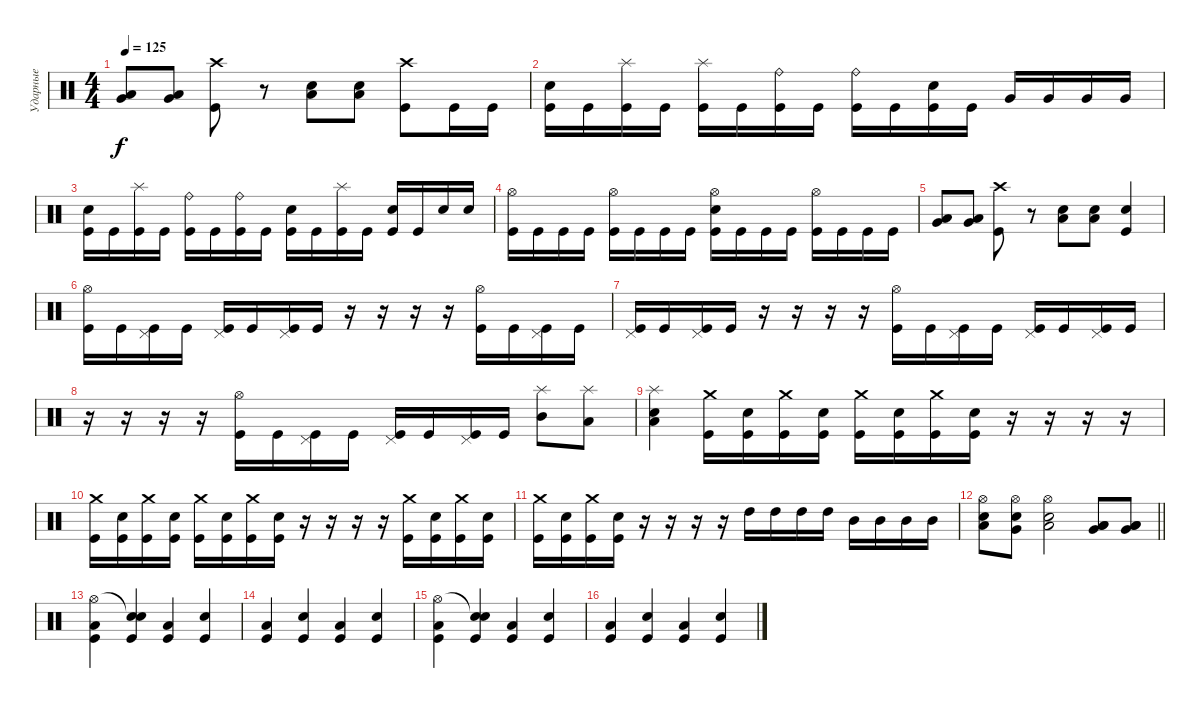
\track ("Ударные" "Ударные") {instrument percussion}
\staff {score}
\articulation defaults
\ts (4 4)
\tempo 125
\clef neutral
\ks c
("Low Tom (hit)" "Very Low Tom (hit)").8{dy f} ("Low Tom (hit)" "Very Low Tom (hit)").8 ("Crash high (hit)" "Kick (hit)").8 r.8 ("Electric Snare (hit)" "Low Floor Tom (hit)").8 ("Electric Snare (hit)" "Low Floor Tom (hit)").8 ("Crash high (hit)" "Kick (hit)").8 "Kick (hit)".16 "Kick (hit)".16 |
("Electric Snare (hit)" "Kick (hit)").16 "Kick (hit)".16 ("Splash (hit)" "Kick (hit)").16 "Kick (hit)".16 ("Splash (hit)" "Kick (hit)").16 "Kick (hit)".16 ("Ride (bell)" "Kick (hit)").16 "Kick (hit)".16 ("Ride (bell)" "Kick (hit)").16 "Kick (hit)".16 ("Electric Snare (hit)" "Kick (hit)").16 "Kick (hit)".16 "Very Low Tom (hit)".16 "Very Low Tom (hit)".16 "Very Low Tom (hit)".16 "Very Low Tom (hit)".16 |
("Electric Snare (hit)" "Kick (hit)").16 "Kick (hit)".16 ("Splash (hit)" "Kick (hit)").16 "Kick (hit)".16 ("Ride (bell)" "Kick (hit)").16 "Kick (hit)".16 ("Ride (bell)" "Kick (hit)").16 "Kick (hit)".16 ("Electric Snare (hit)" "Kick (hit)").16 "Kick (hit)".16 ("Splash (hit)" "Kick (hit)").16 "Kick (hit)".16 ("Electric Snare (hit)" "Kick (hit)").16 "Kick (hit)".16 "Electric Snare (hit)".16 "Electric Snare (hit)".16 |
("Hi-Hat (open)" "Kick (hit)").16 "Kick (hit)".16 "Kick (hit)".16 "Kick (hit)".16 ("Hi-Hat (open)" "Kick (hit)").16 "Kick (hit)".16 "Kick (hit)".16 "Kick (hit)".16 ("Hi-Hat (open)" "Electric Snare (hit)" "Kick (hit)").16 "Kick (hit)".16 "Kick (hit)".16 "Kick (hit)".16 ("Hi-Hat (open)" "Kick (hit)").16 "Kick (hit)".16 "Kick (hit)".16 "Kick (hit)".16 |
("Low Tom (hit)" "Very Low Tom (hit)").8 ("Low Tom (hit)" "Very Low Tom (hit)").8 ("Crash high (hit)" "Kick (hit)").8 r.8 ("Electric Snare (hit)" "Low Floor Tom (hit)").8 ("Electric Snare (hit)" "Low Floor Tom (hit)").8 ("Electric Snare (hit)" "Kick (hit)").4 |
("Kick (hit)" "Hi-Hat (open)").16 "Kick (hit)".16 ("Kick (hit)" "Pedal Hi-Hat (hit)").16 "Kick (hit)".16 ("Kick (hit)" "Pedal Hi-Hat (hit)").16 "Kick (hit)".16 ("Kick (hit)" "Pedal Hi-Hat (hit)").16 "Kick (hit)".16 r.16 r.16 r.16 r.16 ("Kick (hit)" "Hi-Hat (open)").16 "Kick (hit)".16 ("Kick (hit)" "Pedal Hi-Hat (hit)").16 "Kick (hit)".16 |
("Kick (hit)" "Pedal Hi-Hat (hit)").16 "Kick (hit)".16 ("Kick (hit)" "Pedal Hi-Hat (hit)").16 "Kick (hit)".16 r.16 r.16 r.16 r.16 ("Kick (hit)" "Hi-Hat (open)").16 "Kick (hit)".16 ("Kick (hit)" "Pedal Hi-Hat (hit)").16 "Kick (hit)".16 ("Kick (hit)" "Pedal Hi-Hat (hit)").16 "Kick (hit)".16 ("Kick (hit)" "Pedal Hi-Hat (hit)").16 "Kick (hit)".16 |
r.16 r.16 r.16 r.16 ("Kick (hit)" "Hi-Hat (open)").16 "Kick (hit)".16 ("Kick (hit)" "Pedal Hi-Hat (hit)").16 "Kick (hit)".16 ("Kick (hit)" "Pedal Hi-Hat (hit)").16 "Kick (hit)".16 ("Kick (hit)" "Pedal Hi-Hat (hit)").16 "Kick (hit)".16 ("Mid Tom (hit)" "Splash (hit)").8 ("Low Tom (hit)" "Splash (hit)").8 |
("Electric Snare (hit)" "Low Floor Tom (hit)" "Splash (hit)").4 ("Crash medium (hit)" "Kick (hit)").16 ("Electric Snare (hit)" "Kick (hit)").16 ("Crash medium (hit)" "Kick (hit)").16 ("Electric Snare (hit)" "Kick (hit)").16 ("Crash medium (hit)" "Kick (hit)").16 ("Electric Snare (hit)" "Kick (hit)").16 ("Crash medium (hit)" "Kick (hit)").16 ("Electric Snare (hit)" "Kick (hit)").16 r.16 r.16 r.16 r.16 |
("Crash medium (hit)" "Kick (hit)").16 ("Electric Snare (hit)" "Kick (hit)").16 ("Crash medium (hit)" "Kick (hit)").16 ("Electric Snare (hit)" "Kick (hit)").16 ("Crash medium (hit)" "Kick (hit)").16 ("Electric Snare (hit)" "Kick (hit)").16 ("Crash medium (hit)" "Kick (hit)").16 ("Electric Snare (hit)" "Kick (hit)").16 r.16 r.16 r.16 r.16 ("Crash medium (hit)" "Kick (hit)").16 ("Electric Snare (hit)" "Kick (hit)").16 ("Crash medium (hit)" "Kick (hit)").16 ("Electric Snare (hit)" "Kick (hit)").16 |
("Crash medium (hit)" "Kick (hit)").16 ("Electric Snare (hit)" "Kick (hit)").16 ("Crash medium (hit)" "Kick (hit)").16 ("Electric Snare (hit)" "Kick (hit)").16 r.16 r.16 r.16 r.16 "High Tom (hit)".16 "High Tom (hit)".16 "High Tom (hit)".16 "High Tom (hit)".16 "Mid Tom (hit)".16 "Mid Tom (hit)".16 "Mid Tom (hit)".16 "Mid Tom (hit)".16 |
\barLineRight lightlight
("Hi-Hat (open)" "Electric Snare (hit)" "Low Tom (hit)").8 ("Hi-Hat (open)" "Electric Snare (hit)" "Very Low Tom (hit)").8 ("Hi-Hat (open)" "Electric Snare (hit)" "Low Floor Tom (hit)").2 ("Low Floor Tom (hit)" "Low Floor Tom (hit)" "Very Low Tom (hit)").8 ("Low Floor Tom (hit)" "Low Floor Tom (hit)" "Very Low Tom (hit)").8 |
("Hi-Hat (open)" "Low Floor Tom (hit)" "Kick (hit)").4 ("Snare (hit)"{t} "Electric Snare (hit)" "Kick (hit)").4 ("Low Floor Tom (hit)" "Kick (hit)").4 ("Electric Snare (hit)" "Kick (hit)").4 |
("Low Floor Tom (hit)" "Kick (hit)").4 ("Electric Snare (hit)" "Kick (hit)").4 ("Low Floor Tom (hit)" "Kick (hit)").4 ("Electric Snare (hit)" "Kick (hit)").4 |
("Hi-Hat (open)" "Low Floor Tom (hit)" "Kick (hit)").4 ("Snare (hit)"{t} "Electric Snare (hit)" "Kick (hit)").4 ("Low Floor Tom (hit)" "Kick (hit)").4 ("Electric Snare (hit)" "Kick (hit)").4 |
("Low Floor Tom (hit)" "Kick (hit)").4 ("Electric Snare (hit)" "Kick (hit)").4 ("Low Floor Tom (hit)" "Kick (hit)").4 ("Electric Snare (hit)" "Kick (hit)").4
